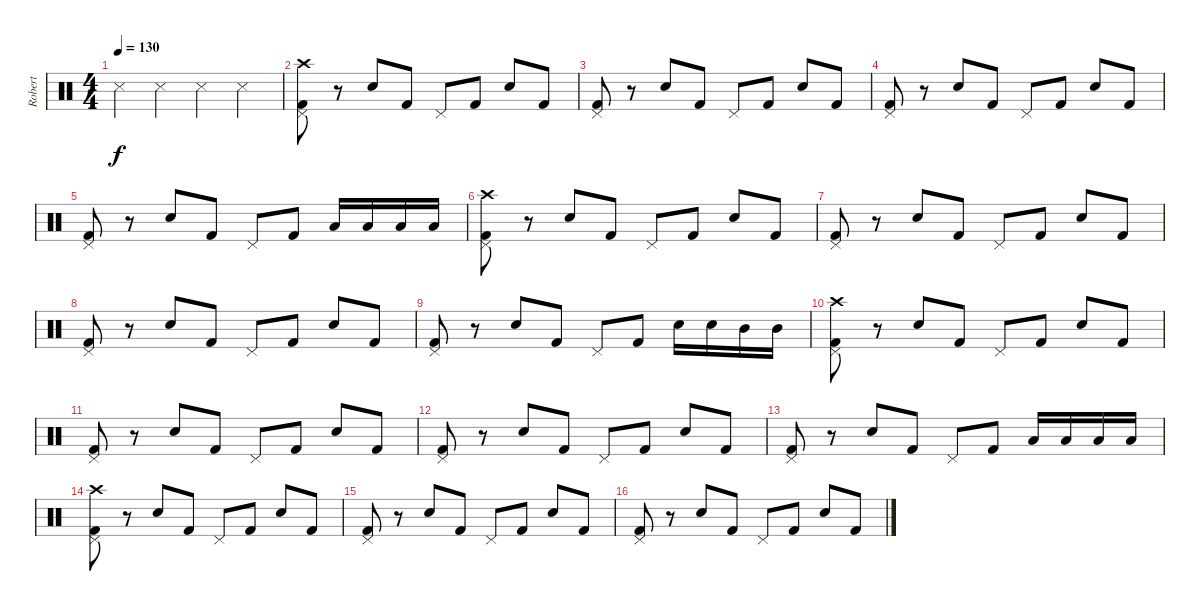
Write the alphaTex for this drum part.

\track ("Robert" "Robert") {instrument percussion}
\staff {score}
\articulation defaults
\ts (4 4)
\tempo 130
\clef neutral
\ks c "Snare (side stick) 3".4{dy f} "Snare (side stick) 3".4 "Snare (side stick) 3".4 "Snare (side stick) 3".4
|
("Crash high (hit)" "Pedal Hi-Hat (hit)" "Kick (hit) 2").8 r.8 "Electric Snare (hit)".8 "Kick (hit) 2".8 "Pedal Hi-Hat (hit)".8 "Kick (hit) 2".8 "Electric Snare (hit)".8 "Kick (hit) 2".8 |
("Pedal Hi-Hat (hit)" "Kick (hit) 2").8 r.8 "Electric Snare (hit)".8 "Kick (hit) 2".8 "Pedal Hi-Hat (hit)".8 "Kick (hit) 2".8 "Electric Snare (hit)".8 "Kick (hit) 2".8 |
("Pedal Hi-Hat (hit)" "Kick (hit) 2").8 r.8 "Electric Snare (hit)".8 "Kick (hit) 2".8 "Pedal Hi-Hat (hit)".8 "Kick (hit) 2".8 "Electric Snare (hit)".8 "Kick (hit) 2".8 |
("Pedal Hi-Hat (hit)" "Kick (hit) 2").8 r.8 "Electric Snare (hit)".8 "Kick (hit) 2".8 "Pedal Hi-Hat (hit)".8 "Kick (hit) 2".8 "Low Tom (hit)".16 "Low Tom (hit)".16 "Low Tom (hit)".16 "Low Tom (hit)".16 |
("Crash high (hit)" "Pedal Hi-Hat (hit)" "Kick (hit) 2").8 r.8 "Electric Snare (hit)".8 "Kick (hit) 2".8 "Pedal Hi-Hat (hit)".8 "Kick (hit) 2".8 "Electric Snare (hit)".8 "Kick (hit) 2".8 |
("Pedal Hi-Hat (hit)" "Kick (hit) 2").8 r.8 "Electric Snare (hit)".8 "Kick (hit) 2".8 "Pedal Hi-Hat (hit)".8 "Kick (hit) 2".8 "Electric Snare (hit)".8 "Kick (hit) 2".8 |
("Pedal Hi-Hat (hit)" "Kick (hit) 2").8 r.8 "Electric Snare (hit)".8 "Kick (hit) 2".8 "Pedal Hi-Hat (hit)".8 "Kick (hit) 2".8 "Electric Snare (hit)".8 "Kick (hit) 2".8 |
("Pedal Hi-Hat (hit)" "Kick (hit) 2").8 r.8 "Electric Snare (hit)".8 "Kick (hit) 2".8 "Pedal Hi-Hat (hit)".8 "Kick (hit) 2".8 "Electric Snare (hit)".16 "Electric Snare (hit)".16 "Mid Tom (hit)".16 "Mid Tom (hit)".16 |
("Crash high (hit)" "Pedal Hi-Hat (hit)" "Kick (hit) 2").8 r.8 "Electric Snare (hit)".8 "Kick (hit) 2".8 "Pedal Hi-Hat (hit)".8 "Kick (hit) 2".8 "Electric Snare (hit)".8 "Kick (hit) 2".8 |
("Pedal Hi-Hat (hit)" "Kick (hit) 2").8 r.8 "Electric Snare (hit)".8 "Kick (hit) 2".8 "Pedal Hi-Hat (hit)".8 "Kick (hit) 2".8 "Electric Snare (hit)".8 "Kick (hit) 2".8 |
("Pedal Hi-Hat (hit)" "Kick (hit) 2").8 r.8 "Electric Snare (hit)".8 "Kick (hit) 2".8 "Pedal Hi-Hat (hit)".8 "Kick (hit) 2".8 "Electric Snare (hit)".8 "Kick (hit) 2".8 |
("Pedal Hi-Hat (hit)" "Kick (hit) 2").8 r.8 "Electric Snare (hit)".8 "Kick (hit) 2".8 "Pedal Hi-Hat (hit)".8 "Kick (hit) 2".8 "Low Tom (hit)".16 "Low Tom (hit)".16 "Low Tom (hit)".16 "Low Tom (hit)".16 |
("Crash high (hit)" "Pedal Hi-Hat (hit)" "Kick (hit) 2").8 r.8 "Electric Snare (hit)".8 "Kick (hit) 2".8 "Pedal Hi-Hat (hit)".8 "Kick (hit) 2".8 "Electric Snare (hit)".8 "Kick (hit) 2".8 |
("Pedal Hi-Hat (hit)" "Kick (hit) 2").8 r.8 "Electric Snare (hit)".8 "Kick (hit) 2".8 "Pedal Hi-Hat (hit)".8 "Kick (hit) 2".8 "Electric Snare (hit)".8 "Kick (hit) 2".8 |
("Pedal Hi-Hat (hit)" "Kick (hit) 2").8 r.8 "Electric Snare (hit)".8 "Kick (hit) 2".8 "Pedal Hi-Hat (hit)".8 "Kick (hit) 2".8 "Electric Snare (hit)".8 "Kick (hit) 2".8
